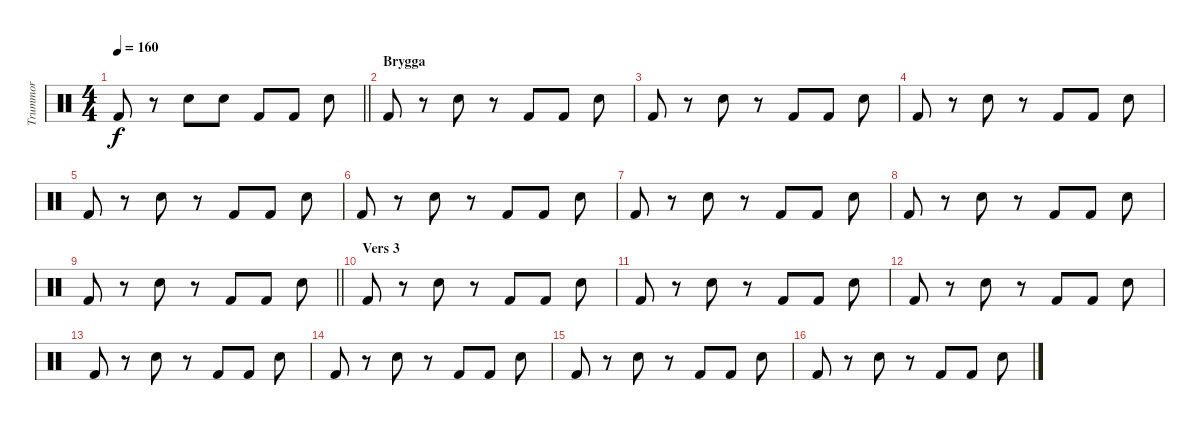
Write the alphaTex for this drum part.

\track ("Trummor" "Trummor") {instrument percussion}
\staff {score}
\articulation defaults
\ts (4 4)
\tempo 160
\clef neutral
\barLineRight lightlight
\ks c "Kick (hit) 2".8{dy f}
r.8 "Snare (hit) 2".8 "Snare (hit) 2".8 "Kick (hit) 2".8 "Kick (hit) 2".8 "Snare (hit) 2".8 |
\section ("" "Brygga")
"Kick (hit) 2".8 r.8 "Snare (hit) 2".8 r.8 "Kick (hit) 2".8 "Kick (hit) 2".8 "Snare (hit) 2".8 |
"Kick (hit) 2".8 r.8 "Snare (hit) 2".8 r.8 "Kick (hit) 2".8 "Kick (hit) 2".8 "Snare (hit) 2".8 |
"Kick (hit) 2".8 r.8 "Snare (hit) 2".8 r.8 "Kick (hit) 2".8 "Kick (hit) 2".8 "Snare (hit) 2".8 |
"Kick (hit) 2".8 r.8 "Snare (hit) 2".8 r.8 "Kick (hit) 2".8 "Kick (hit) 2".8 "Snare (hit) 2".8 |
"Kick (hit) 2".8 r.8 "Snare (hit) 2".8 r.8 "Kick (hit) 2".8 "Kick (hit) 2".8 "Snare (hit) 2".8 |
"Kick (hit) 2".8 r.8 "Snare (hit) 2".8 r.8 "Kick (hit) 2".8 "Kick (hit) 2".8 "Snare (hit) 2".8 |
"Kick (hit) 2".8 r.8 "Snare (hit) 2".8 r.8 "Kick (hit) 2".8 "Kick (hit) 2".8 "Snare (hit) 2".8 |
\barLineRight lightlight "Kick (hit) 2".8
r.8 "Snare (hit) 2".8 r.8 "Kick (hit) 2".8 "Kick (hit) 2".8 "Snare (hit) 2".8 |
\section ("" "Vers 3")
"Kick (hit) 2".8 r.8 "Snare (hit) 2".8 r.8 "Kick (hit) 2".8 "Kick (hit) 2".8 "Snare (hit) 2".8 |
"Kick (hit) 2".8 r.8 "Snare (hit) 2".8 r.8 "Kick (hit) 2".8 "Kick (hit) 2".8 "Snare (hit) 2".8 |
"Kick (hit) 2".8 r.8 "Snare (hit) 2".8 r.8 "Kick (hit) 2".8 "Kick (hit) 2".8 "Snare (hit) 2".8 |
"Kick (hit) 2".8 r.8 "Snare (hit) 2".8 r.8 "Kick (hit) 2".8 "Kick (hit) 2".8 "Snare (hit) 2".8 |
"Kick (hit) 2".8 r.8 "Snare (hit) 2".8 r.8 "Kick (hit) 2".8 "Kick (hit) 2".8 "Snare (hit) 2".8 |
"Kick (hit) 2".8 r.8 "Snare (hit) 2".8 r.8 "Kick (hit) 2".8 "Kick (hit) 2".8 "Snare (hit) 2".8 |
"Kick (hit) 2".8 r.8 "Snare (hit) 2".8 r.8 "Kick (hit) 2".8 "Kick (hit) 2".8 "Snare (hit) 2".8
